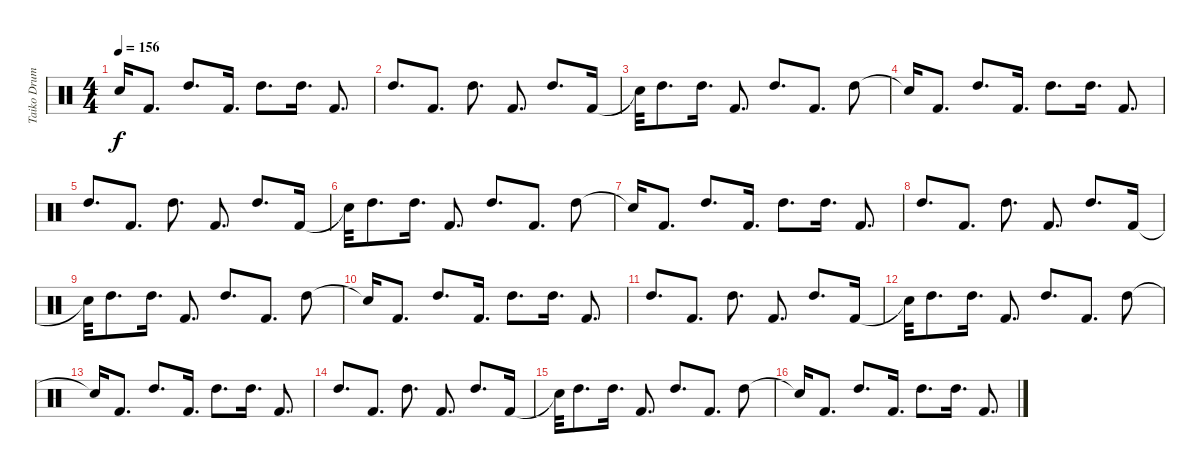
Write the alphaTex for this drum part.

\track ("Taiko Drum" "Taiko Drum") {instrument percussion}
\staff {score}
\articulation defaults
\ts (4 4)
\tempo 156
\clef neutral
\ks c "Snare (hit)"{t}.16{dy f} "Kick (hit) 2".8{d} "High Tom (hit)".8{d} "Kick (hit) 2".16{d} "High Tom (hit)".8{d} "High Tom (hit)".16{d} "Kick (hit) 2".8{d}
|
"High Tom (hit)".8{d} "Kick (hit) 2".8{d} "High Tom (hit)".8{d} "Kick (hit) 2".8{d} "High Tom (hit)".8{d} "Kick (hit) 2".16 |
"Snare (hit)"{t}.32 "High Tom (hit)".8{d} "High Tom (hit)".16{d} "Kick (hit) 2".8{d} "High Tom (hit)".8{d} "Kick (hit) 2".8{d} "High Tom (hit)".8 |
"Snare (hit)"{t}.16 "Kick (hit) 2".8{d} "High Tom (hit)".8{d} "Kick (hit) 2".16{d} "High Tom (hit)".8{d} "High Tom (hit)".16{d} "Kick (hit) 2".8{d} |
"High Tom (hit)".8{d} "Kick (hit) 2".8{d} "High Tom (hit)".8{d} "Kick (hit) 2".8{d} "High Tom (hit)".8{d} "Kick (hit) 2".16 |
"Snare (hit)"{t}.32 "High Tom (hit)".8{d} "High Tom (hit)".16{d} "Kick (hit) 2".8{d} "High Tom (hit)".8{d} "Kick (hit) 2".8{d} "High Tom (hit)".8 |
"Snare (hit)"{t}.16 "Kick (hit) 2".8{d} "High Tom (hit)".8{d} "Kick (hit) 2".16{d} "High Tom (hit)".8{d} "High Tom (hit)".16{d} "Kick (hit) 2".8{d} |
"High Tom (hit)".8{d} "Kick (hit) 2".8{d} "High Tom (hit)".8{d} "Kick (hit) 2".8{d} "High Tom (hit)".8{d} "Kick (hit) 2".16 |
"Snare (hit)"{t}.32 "High Tom (hit)".8{d} "High Tom (hit)".16{d} "Kick (hit) 2".8{d} "High Tom (hit)".8{d} "Kick (hit) 2".8{d} "High Tom (hit)".8 |
"Snare (hit)"{t}.16 "Kick (hit) 2".8{d} "High Tom (hit)".8{d} "Kick (hit) 2".16{d} "High Tom (hit)".8{d} "High Tom (hit)".16{d} "Kick (hit) 2".8{d} |
"High Tom (hit)".8{d} "Kick (hit) 2".8{d} "High Tom (hit)".8{d} "Kick (hit) 2".8{d} "High Tom (hit)".8{d} "Kick (hit) 2".16 |
"Snare (hit)"{t}.32 "High Tom (hit)".8{d} "High Tom (hit)".16{d} "Kick (hit) 2".8{d} "High Tom (hit)".8{d} "Kick (hit) 2".8{d} "High Tom (hit)".8 |
"Snare (hit)"{t}.16 "Kick (hit) 2".8{d} "High Tom (hit)".8{d} "Kick (hit) 2".16{d} "High Tom (hit)".8{d} "High Tom (hit)".16{d} "Kick (hit) 2".8{d} |
"High Tom (hit)".8{d} "Kick (hit) 2".8{d} "High Tom (hit)".8{d} "Kick (hit) 2".8{d} "High Tom (hit)".8{d} "Kick (hit) 2".16 |
"Snare (hit)"{t}.32 "High Tom (hit)".8{d} "High Tom (hit)".16{d} "Kick (hit) 2".8{d} "High Tom (hit)".8{d} "Kick (hit) 2".8{d} "High Tom (hit)".8 |
"Snare (hit)"{t}.16 "Kick (hit) 2".8{d} "High Tom (hit)".8{d} "Kick (hit) 2".16{d} "High Tom (hit)".8{d} "High Tom (hit)".16{d} "Kick (hit) 2".8{d}
